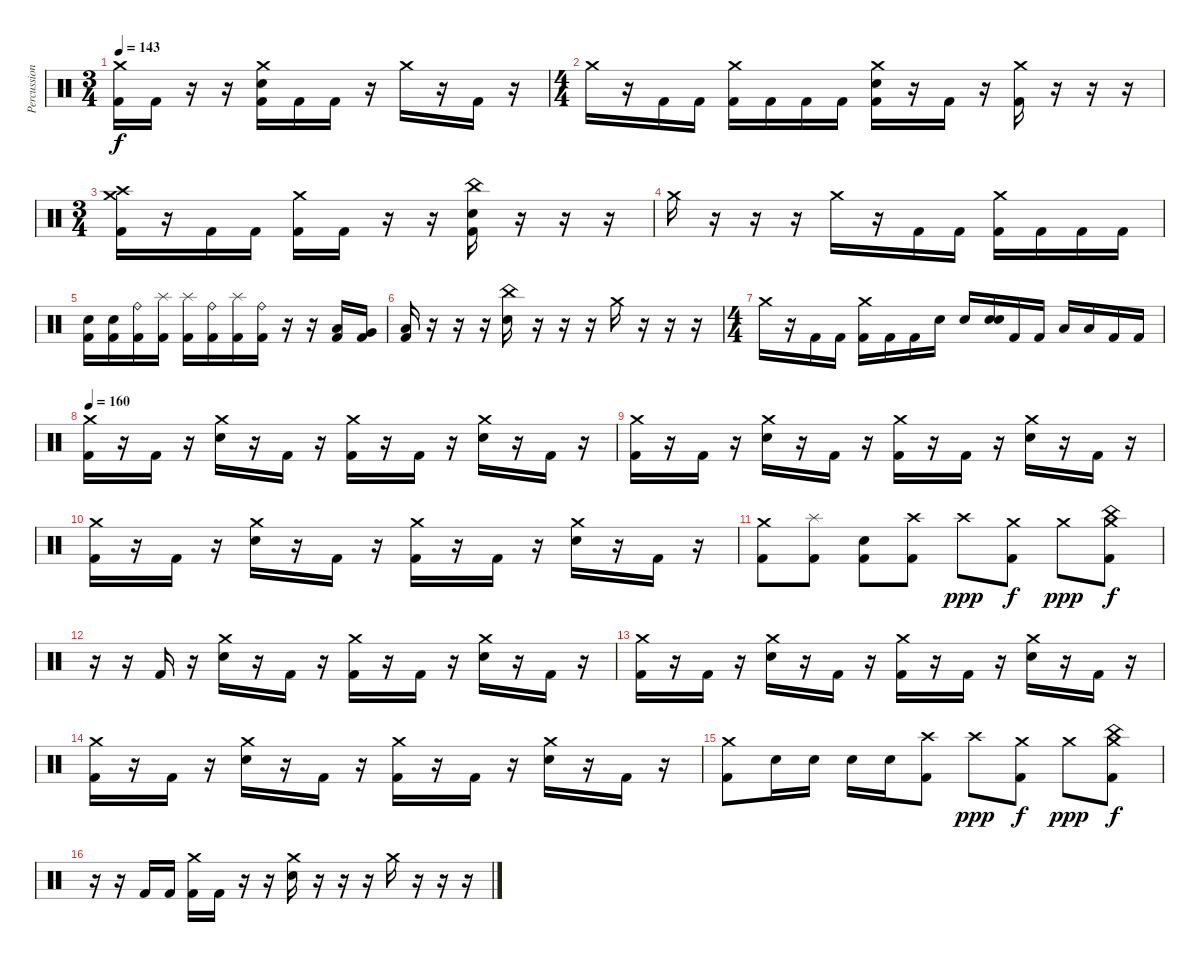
\track ("Percussion" "Percussion") {instrument percussion}
\staff {score}
\articulation defaults
\ts (3 4)
\tempo 143
\clef neutral
\ks c
("Crash medium (hit)" "Kick (hit) 2").16{dy f} "Kick (hit) 2".16 r.16 r.16 ("Crash medium (hit)" "Electric Snare (hit)" "Kick (hit) 2").16 "Kick (hit) 2".16 "Kick (hit) 2".16 r.16 "Crash medium (hit)".16 r.16 "Kick (hit) 2".16 r.16 |
\ts (4 4)
"Crash medium (hit)".16 r.16 "Kick (hit) 2".16 "Kick (hit) 2".16 ("Crash medium (hit)" "Kick (hit) 2").16 "Kick (hit) 2".16 "Kick (hit) 2".16 "Kick (hit) 2".16 ("Crash medium (hit)" "Electric Snare (hit)" "Kick (hit) 2").16 r.16 "Kick (hit) 2".16 r.16 ("Crash medium (hit)" "Kick (hit) 2").16 r.16 r.16 r.16 |
\ts (3 4)
("Crash medium (hit)" "Crash high (hit)" "Kick (hit) 2").16 r.16 "Kick (hit) 2".16 "Kick (hit) 2".16 ("Crash medium (hit)" "Kick (hit) 2").16 "Kick (hit) 2".16 r.16 r.16 ("China (hit)" "Electric Snare (hit)" "Kick (hit) 2").16 r.16 r.16 r.16 |
"Crash medium (hit)".16 r.16 r.16 r.16 "Crash medium (hit)".16 r.16 "Kick (hit) 2".16 "Kick (hit) 2".16 ("Crash medium (hit)" "Kick (hit) 2").16 "Kick (hit) 2".16 "Kick (hit) 2".16 "Kick (hit) 2".16 |
("Electric Snare (hit)" "Kick (hit) 2").16 ("Electric Snare (hit)" "Kick (hit) 2").16 ("Ride (bell)" "Kick (hit) 2").16 ("Splash (hit)" "Kick (hit) 2").16 ("Splash (hit)" "Kick (hit) 2").16 ("Ride (bell)" "Kick (hit) 2").16 ("Splash (hit)" "Kick (hit) 2").16 ("Ride (bell)" "Kick (hit) 2").16 r.16 r.16 ("Low Tom (hit)" "Kick (hit) 2").16 ("Very Low Tom (hit)" "Kick (hit) 2").16 |
("Low Tom (hit)" "Kick (hit) 2").16 r.16 r.16 r.16 ("China (hit)" "Electric Snare (hit)").16 r.16 r.16 r.16 "Crash medium (hit)".16 r.16 r.16 r.16 |
\ts (4 4)
"Crash medium (hit)".16 r.16 "Kick (hit) 2".16 "Kick (hit) 2".16 ("Crash medium (hit)" "Kick (hit) 2").16 "Kick (hit) 2".16 "Kick (hit) 2".16 "Snare (hit)".16 "Electric Snare (hit)".16 ("Snare (hit)" "Electric Snare (hit)").16 "Kick (hit) 2".16 "Kick (hit) 2".16 "Low Tom (hit)".16 "Low Tom (hit)".16 "Kick (hit) 2".16 "Kick (hit) 2".16 |
\tempo 160
("Crash medium (hit)" "Kick (hit) 2").16 r.16 "Kick (hit) 2".16 r.16 ("Crash medium (hit)" "Electric Snare (hit)").16 r.16 "Kick (hit) 2".16 r.16 ("Crash medium (hit)" "Kick (hit) 2").16 r.16 "Kick (hit) 2".16 r.16 ("Crash medium (hit)" "Electric Snare (hit)").16 r.16 "Kick (hit) 2".16 r.16 |
("Crash medium (hit)" "Kick (hit) 2").16 r.16 "Kick (hit) 2".16 r.16 ("Crash medium (hit)" "Electric Snare (hit)").16 r.16 "Kick (hit) 2".16 r.16 ("Crash medium (hit)" "Kick (hit) 2").16 r.16 "Kick (hit) 2".16 r.16 ("Crash medium (hit)" "Electric Snare (hit)").16 r.16 "Kick (hit) 2".16 r.16 |
("Crash medium (hit)" "Kick (hit) 2").16 r.16 "Kick (hit) 2".16 r.16 ("Crash medium (hit)" "Electric Snare (hit)").16 r.16 "Kick (hit) 2".16 r.16 ("Crash medium (hit)" "Kick (hit) 2").16 r.16 "Kick (hit) 2".16 r.16 ("Crash medium (hit)" "Electric Snare (hit)").16 r.16 "Kick (hit) 2".16 r.16 |
("Crash medium (hit)" "Kick (hit) 2").8 ("Splash (hit)" "Kick (hit) 2").8 ("Electric Snare (hit)" "Kick (hit) 2").8 ("Crash high (hit)" "Kick (hit) 2").8 "Crash high (hit)".8{dy ppp} ("Crash medium (hit)" "Kick (hit) 2").8{dy f} "Crash medium (hit)".8{dy ppp} ("China (hit)" "Crash medium (hit)" "Kick (hit) 2").8{dy f} |
r.16 r.16 "Kick (hit) 2".16 r.16 ("Crash medium (hit)" "Electric Snare (hit)").16 r.16 "Kick (hit) 2".16 r.16 ("Crash medium (hit)" "Kick (hit) 2").16 r.16 "Kick (hit) 2".16 r.16 ("Crash medium (hit)" "Electric Snare (hit)").16 r.16 "Kick (hit) 2".16 r.16 |
("Crash medium (hit)" "Kick (hit) 2").16 r.16 "Kick (hit) 2".16 r.16 ("Crash medium (hit)" "Electric Snare (hit)").16 r.16 "Kick (hit) 2".16 r.16 ("Crash medium (hit)" "Kick (hit) 2").16 r.16 "Kick (hit) 2".16 r.16 ("Crash medium (hit)" "Electric Snare (hit)").16 r.16 "Kick (hit) 2".16 r.16 |
("Crash medium (hit)" "Kick (hit) 2").16 r.16 "Kick (hit) 2".16 r.16 ("Crash medium (hit)" "Electric Snare (hit)").16 r.16 "Kick (hit) 2".16 r.16 ("Crash medium (hit)" "Kick (hit) 2").16 r.16 "Kick (hit) 2".16 r.16 ("Crash medium (hit)" "Electric Snare (hit)").16 r.16 "Kick (hit) 2".16 r.16 |
("Crash medium (hit)" "Kick (hit) 2").8 "Electric Snare (hit)".16 "Electric Snare (hit)".16 "Electric Snare (hit)".16 "Electric Snare (hit)".16 ("Crash high (hit)" "Kick (hit) 2").8 "Crash high (hit)".8{dy ppp} ("Crash medium (hit)" "Kick (hit) 2").8{dy f} "Crash medium (hit)".8{dy ppp} ("China (hit)" "Crash medium (hit)" "Kick (hit) 2").8{dy f} |
r.16 r.16 "Kick (hit) 2".16 "Kick (hit) 2".16 ("Crash medium (hit)" "Kick (hit) 2").16 "Kick (hit) 2".16 r.16 r.16 ("Crash medium (hit)" "Electric Snare (hit)").16 r.16 r.16 r.16 "Crash medium (hit)".16 r.16 r.16 r.16
